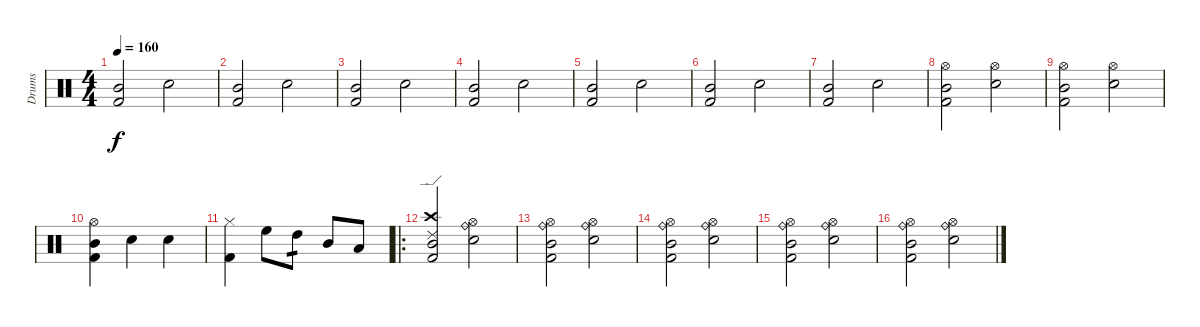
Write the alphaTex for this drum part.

\track ("Drums" "Drums") {instrument percussion}
\staff {score}
\articulation defaults
\ts (4 4)
\tempo 160
\clef neutral
\ks c
("Kick (hit) 2" "Mid Tom (hit)").2{dy f} "Electric Snare (hit)".2 |
("Kick (hit) 2" "Mid Tom (hit)").2 "Electric Snare (hit)".2 |
("Kick (hit) 2" "Mid Tom (hit)").2 "Electric Snare (hit)".2 |
("Kick (hit) 2" "Mid Tom (hit)").2 "Electric Snare (hit)".2 |
("Kick (hit) 2" "Mid Tom (hit)").2 "Electric Snare (hit)".2 |
("Kick (hit) 2" "Mid Tom (hit)").2 "Electric Snare (hit)".2 |
("Kick (hit) 2" "Mid Tom (hit)").2 "Electric Snare (hit)".2 |
("Kick (hit) 2" "Mid Tom (hit)" "Hi-Hat (open)").2 ("Electric Snare (hit)" "Hi-Hat (open)").2 |
("Kick (hit) 2" "Mid Tom (hit)" "Hi-Hat (open)").2 ("Electric Snare (hit)" "Hi-Hat (open)").2 |
("Kick (hit) 2" "Mid Tom (hit)" "Hi-Hat (open)").4 "Electric Snare (hit)".4 "Electric Snare (hit)".4 |
("Kick (hit) 2" "Hi-Hat (closed)").4 "High Floor Tom (hit)".8 "High Tom (hit)".8{tp 1} "Mid Tom (hit)".8 "Low Tom (hit)".8 |
\ro
("Mid Tom (hit)" "Crash high (hit)" "Kick (hit) 2" "Ride (edge) 2").2 ("Electric Snare (hit)" "Ride (bell)" "Hi-Hat (open)").2 |
("Mid Tom (hit)" "Kick (hit) 2" "Ride (bell)" "Hi-Hat (open)").2 ("Electric Snare (hit)" "Ride (bell)" "Hi-Hat (open)").2 |
("Mid Tom (hit)" "Kick (hit) 2" "Ride (bell)" "Hi-Hat (open)").2 ("Electric Snare (hit)" "Ride (bell)" "Hi-Hat (open)").2 |
("Mid Tom (hit)" "Kick (hit) 2" "Ride (bell)" "Hi-Hat (open)").2 ("Electric Snare (hit)" "Ride (bell)" "Hi-Hat (open)").2 |
("Mid Tom (hit)" "Kick (hit) 2" "Ride (bell)" "Hi-Hat (open)").2 ("Electric Snare (hit)" "Ride (bell)" "Hi-Hat (open)").2
